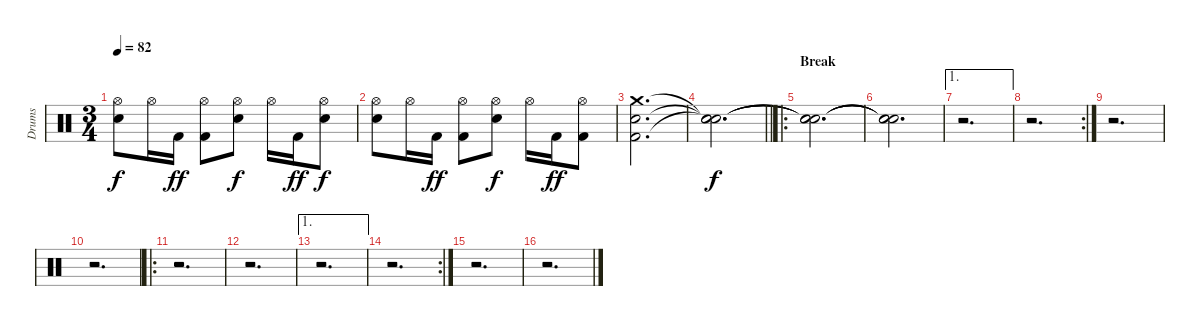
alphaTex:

\track ("Drums" "Drums") {instrument percussion}
\staff {score}
\articulation defaults
\ts (3 4)
\tempo 82
\clef neutral
\ks c
("Hi-Hat (open)" "Electric Snare (hit)").8{dy f} "Hi-Hat (open)".16 "Kick (hit) 2".16{dy ff} ("Hi-Hat (open)" "Kick (hit) 2").8 ("Hi-Hat (open)" "Electric Snare (hit)").8{dy f} "Hi-Hat (open)".16 "Kick (hit) 2".16{dy ff} ("Hi-Hat (open)" "Electric Snare (hit)").8{dy f} |
("Hi-Hat (open)" "Electric Snare (hit)").8 "Hi-Hat (open)".16 "Kick (hit) 2".16{dy ff} ("Hi-Hat (open)" "Kick (hit) 2").8 ("Hi-Hat (open)" "Electric Snare (hit)").8{dy f} "Hi-Hat (open)".16 "Kick (hit) 2".16{dy ff} ("Hi-Hat (open)" "Kick (hit) 2").8 |
("Crash medium (hit)" "Electric Snare (hit)" "Kick (hit) 2").2{d} |
\barLineRight lightlight
("Snare (hit)"{t} "Snare (hit)"{t} "Snare (hit)"{t}).2{d dy f} |
\ro
\section ("" "Break")
("Snare (hit)"{t} "Snare (hit)"{t} "Snare (hit)"{t}).2{d} |
("Snare (hit)"{t} "Snare (hit)"{t} "Snare (hit)"{t}).2{d} |
\ae 1
r.2{d} |
\rc 2
r.2{d} |
r.2{d} |
r.2{d} |
\ro
r.2{d} |
r.2{d} |
\ae 1
r.2{d} |
\rc 2
r.2{d} |
r.2{d} |
r.2{d}
